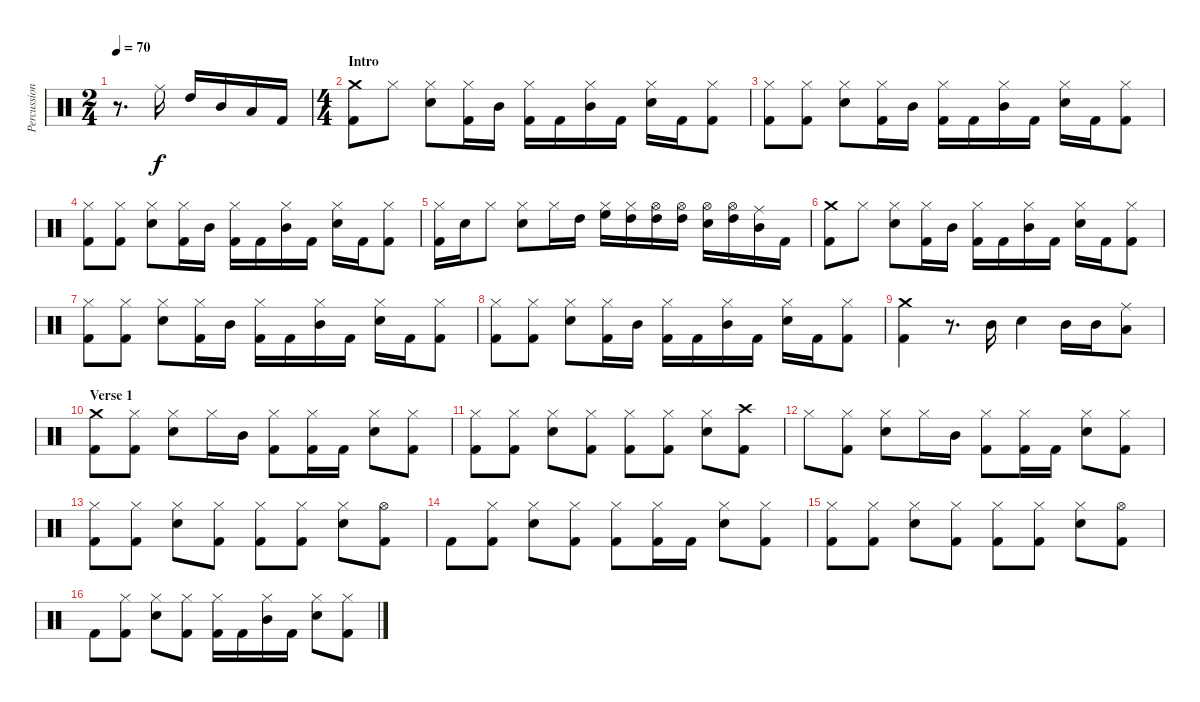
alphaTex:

\track ("Percussion" "Percussion") {instrument percussion}
\staff {score}
\articulation defaults
\ts (2 4)
\tempo 70
\clef neutral
\ks c
r.8{d dy f} "Ride (middle)".16 "High Tom (hit)".16 "Mid Tom (hit)".16 "Low Tom (hit)".16 "Kick (hit) 2".16 |
\ts (4 4)
\section ("" "Intro")
("Crash medium (hit)" "Kick (hit) 2").8 "Hi-Hat (closed)".8 ("Hi-Hat (closed)" "Electric Snare (hit)").8 ("Hi-Hat (closed)" "Kick (hit) 2").16 "Mid Tom (hit)".16 ("Hi-Hat (closed)" "Kick (hit) 2").16 "Kick (hit) 2".16 ("Hi-Hat (closed)" "Mid Tom (hit)").16 "Kick (hit) 2".16 ("Hi-Hat (closed)" "Electric Snare (hit)").16 "Kick (hit) 2".16 ("Hi-Hat (closed)" "Kick (hit) 2").8 |
("Hi-Hat (closed)" "Kick (hit) 2").8 ("Hi-Hat (closed)" "Kick (hit) 2").8 ("Hi-Hat (closed)" "Electric Snare (hit)").8 ("Hi-Hat (closed)" "Kick (hit) 2").16 "Mid Tom (hit)".16 ("Hi-Hat (closed)" "Kick (hit) 2").16 "Kick (hit) 2".16 ("Hi-Hat (closed)" "Mid Tom (hit)").16 "Kick (hit) 2".16 ("Hi-Hat (closed)" "Electric Snare (hit)").16 "Kick (hit) 2".16 ("Hi-Hat (closed)" "Kick (hit) 2").8 |
("Hi-Hat (closed)" "Kick (hit) 2").8 ("Hi-Hat (closed)" "Kick (hit) 2").8 ("Hi-Hat (closed)" "Electric Snare (hit)").8 ("Hi-Hat (closed)" "Kick (hit) 2").16 "Mid Tom (hit)".16 ("Hi-Hat (closed)" "Kick (hit) 2").16 "Kick (hit) 2".16 ("Hi-Hat (closed)" "Mid Tom (hit)").16 "Kick (hit) 2".16 ("Hi-Hat (closed)" "Electric Snare (hit)").16 "Kick (hit) 2".16 ("Hi-Hat (closed)" "Kick (hit) 2").8 |
("Hi-Hat (closed)" "Kick (hit) 2").16 "Electric Snare (hit)".16 "Hi-Hat (closed)".8 ("Hi-Hat (closed)" "Electric Snare (hit)").8 "Hi-Hat (closed)".16 "High Tom (hit)".16 ("Hi-Hat (closed)" "High Floor Tom (hit)").16 ("Hi-Hat (closed)" "High Tom (hit)").16 ("Hi-Hat (open)" "High Tom (hit)").16 ("Hi-Hat (open)" "High Tom (hit)").16 ("Hi-Hat (open)" "Electric Snare (hit)").16 ("Hi-Hat (open)" "High Tom (hit)").16 ("Ride (middle)" "Mid Tom (hit)").16 "Kick (hit) 2".16 |
("Crash medium (hit)" "Kick (hit) 2").8 "Hi-Hat (closed)".8 ("Hi-Hat (closed)" "Electric Snare (hit)").8 ("Hi-Hat (closed)" "Kick (hit) 2").16 "Mid Tom (hit)".16 ("Hi-Hat (closed)" "Kick (hit) 2").16 "Kick (hit) 2".16 ("Hi-Hat (closed)" "Mid Tom (hit)").16 "Kick (hit) 2".16 ("Hi-Hat (closed)" "Electric Snare (hit)").16 "Kick (hit) 2".16 ("Hi-Hat (closed)" "Kick (hit) 2").8 |
("Hi-Hat (closed)" "Kick (hit) 2").8 ("Hi-Hat (closed)" "Kick (hit) 2").8 ("Hi-Hat (closed)" "Electric Snare (hit)").8 ("Hi-Hat (closed)" "Kick (hit) 2").16 "Mid Tom (hit)".16 ("Hi-Hat (closed)" "Kick (hit) 2").16 "Kick (hit) 2".16 ("Hi-Hat (closed)" "Mid Tom (hit)").16 "Kick (hit) 2".16 ("Hi-Hat (closed)" "Electric Snare (hit)").16 "Kick (hit) 2".16 ("Hi-Hat (closed)" "Kick (hit) 2").8 |
("Hi-Hat (closed)" "Kick (hit) 2").8 ("Hi-Hat (closed)" "Kick (hit) 2").8 ("Hi-Hat (closed)" "Electric Snare (hit)").8 ("Hi-Hat (closed)" "Kick (hit) 2").16 "Mid Tom (hit)".16 ("Hi-Hat (closed)" "Kick (hit) 2").16 "Kick (hit) 2".16 ("Hi-Hat (closed)" "Mid Tom (hit)").16 "Kick (hit) 2".16 ("Hi-Hat (closed)" "Electric Snare (hit)").16 "Kick (hit) 2".16 ("Hi-Hat (closed)" "Kick (hit) 2").8 |
("Crash medium (hit)" "Kick (hit) 2").4 r.8{d} "Mid Tom (hit)".16 "Electric Snare (hit)".4 "Mid Tom (hit)".16 "Mid Tom (hit)".16 ("Ride (middle)" "Low Tom (hit)").8 |
\section ("" "Verse 1")
("Crash medium (hit)" "Kick (hit) 2").8 ("Hi-Hat (closed)" "Kick (hit) 2").8 ("Hi-Hat (closed)" "Electric Snare (hit)").8 "Hi-Hat (closed)".16 "Mid Tom (hit)".16 ("Hi-Hat (closed)" "Kick (hit) 2").8 ("Hi-Hat (closed)" "Kick (hit) 2").16 "Kick (hit) 2".16 ("Hi-Hat (closed)" "Electric Snare (hit)").8 ("Hi-Hat (closed)" "Kick (hit) 2").8 |
("Hi-Hat (closed)" "Kick (hit) 2").8 ("Hi-Hat (closed)" "Kick (hit) 2").8 ("Hi-Hat (closed)" "Electric Snare (hit)").8 ("Hi-Hat (closed)" "Kick (hit) 2").8 ("Hi-Hat (closed)" "Kick (hit) 2").8 ("Hi-Hat (closed)" "Kick (hit) 2").8 ("Hi-Hat (closed)" "Electric Snare (hit)").8 ("Crash high (hit)" "Kick (hit) 2").8 |
"Hi-Hat (closed)".8 ("Hi-Hat (closed)" "Kick (hit) 2").8 ("Hi-Hat (closed)" "Electric Snare (hit)").8 "Hi-Hat (closed)".16 "Mid Tom (hit)".16 ("Hi-Hat (closed)" "Kick (hit) 2").8 ("Hi-Hat (closed)" "Kick (hit) 2").16 "Kick (hit) 2".16 ("Hi-Hat (closed)" "Electric Snare (hit)").8 ("Hi-Hat (closed)" "Kick (hit) 2").8 |
("Hi-Hat (closed)" "Kick (hit) 2").8 ("Hi-Hat (closed)" "Kick (hit) 2").8 ("Hi-Hat (closed)" "Electric Snare (hit)").8 ("Hi-Hat (closed)" "Kick (hit) 2").8 ("Hi-Hat (closed)" "Kick (hit) 2").8 ("Hi-Hat (closed)" "Kick (hit) 2").8 ("Hi-Hat (closed)" "Electric Snare (hit)").8 ("Hi-Hat (open)" "Kick (hit) 2").8 |
"Kick (hit) 2".8 ("Hi-Hat (closed)" "Kick (hit) 2").8 ("Hi-Hat (closed)" "Electric Snare (hit)").8 ("Hi-Hat (closed)" "Kick (hit) 2").8 ("Hi-Hat (closed)" "Kick (hit) 2").8 ("Hi-Hat (closed)" "Kick (hit) 2").16 "Kick (hit) 2".16 ("Hi-Hat (closed)" "Electric Snare (hit)").8 ("Hi-Hat (closed)" "Kick (hit) 2").8 |
("Hi-Hat (closed)" "Kick (hit) 2").8 ("Hi-Hat (closed)" "Kick (hit) 2").8 ("Hi-Hat (closed)" "Electric Snare (hit)").8 ("Hi-Hat (closed)" "Kick (hit) 2").8 ("Hi-Hat (closed)" "Kick (hit) 2").8 ("Hi-Hat (closed)" "Kick (hit) 2").8 ("Hi-Hat (closed)" "Electric Snare (hit)").8 ("Hi-Hat (open)" "Kick (hit) 2").8 |
"Kick (hit) 2".8 ("Hi-Hat (closed)" "Kick (hit) 2").8 ("Hi-Hat (closed)" "Electric Snare (hit)").8 ("Hi-Hat (closed)" "Kick (hit) 2").8 ("Hi-Hat (closed)" "Kick (hit) 2").16 "Kick (hit) 2".16 ("Hi-Hat (closed)" "Mid Tom (hit)").16 "Kick (hit) 2".16 ("Hi-Hat (closed)" "Electric Snare (hit)").8 ("Hi-Hat (closed)" "Kick (hit) 2").8
